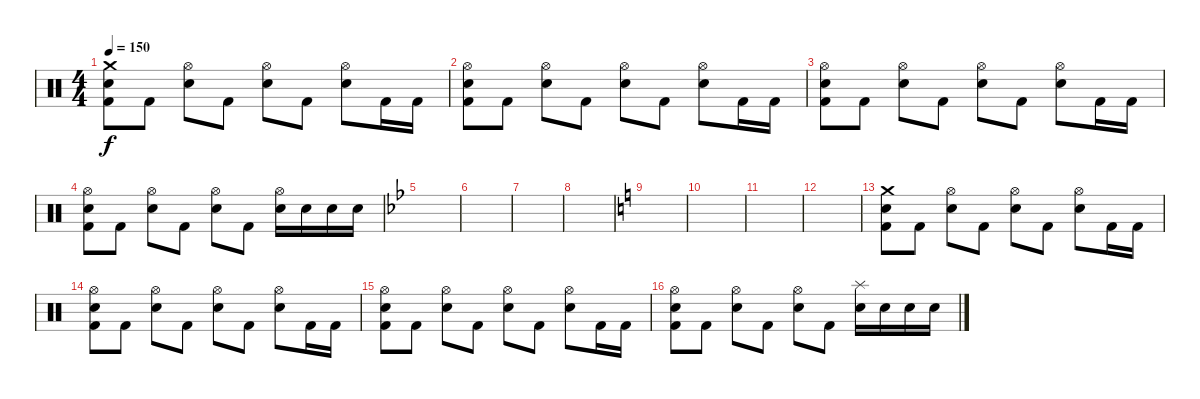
\track "" {instrument percussion}
\staff {score}
\articulation defaults
\ts (4 4)
\tempo 150
\clef neutral
\ks c
("Crash medium (hit)" "Snare (hit) 2" "Kick (hit) 2").8{dy f} "Kick (hit) 2".8 ("Hi-Hat (open)" "Snare (hit) 2").8 "Kick (hit) 2".8 ("Hi-Hat (open)" "Snare (hit) 2").8 "Kick (hit) 2".8 ("Hi-Hat (open)" "Snare (hit) 2").8 "Kick (hit) 2".16 "Kick (hit) 2".16 |
("Hi-Hat (open)" "Snare (hit) 2" "Kick (hit) 2").8 "Kick (hit) 2".8 ("Hi-Hat (open)" "Snare (hit) 2").8 "Kick (hit) 2".8 ("Hi-Hat (open)" "Snare (hit) 2").8 "Kick (hit) 2".8 ("Hi-Hat (open)" "Snare (hit) 2").8 "Kick (hit) 2".16 "Kick (hit) 2".16 |
("Hi-Hat (open)" "Snare (hit) 2" "Kick (hit) 2").8 "Kick (hit) 2".8 ("Hi-Hat (open)" "Snare (hit) 2").8 "Kick (hit) 2".8 ("Hi-Hat (open)" "Snare (hit) 2").8 "Kick (hit) 2".8 ("Hi-Hat (open)" "Snare (hit) 2").8 "Kick (hit) 2".16 "Kick (hit) 2".16 |
("Hi-Hat (open)" "Snare (hit) 2" "Kick (hit) 2").8 "Kick (hit) 2".8 ("Hi-Hat (open)" "Snare (hit) 2").8 "Kick (hit) 2".8 ("Hi-Hat (open)" "Snare (hit) 2").8 "Kick (hit) 2".8 ("Hi-Hat (open)" "Snare (hit) 2").16 "Snare (hit) 2".16 "Snare (hit) 2".16 "Snare (hit) 2".16 |
\ks bb
|
|
|
|
\ks c
|
|
|
|
("Crash medium (hit)" "Snare (hit) 2" "Kick (hit) 2").8 "Kick (hit) 2".8 ("Hi-Hat (open)" "Snare (hit) 2").8 "Kick (hit) 2".8 ("Hi-Hat (open)" "Snare (hit) 2").8 "Kick (hit) 2".8 ("Hi-Hat (open)" "Snare (hit) 2").8 "Kick (hit) 2".16 "Kick (hit) 2".16 |
("Hi-Hat (open)" "Snare (hit) 2" "Kick (hit) 2").8 "Kick (hit) 2".8 ("Hi-Hat (open)" "Snare (hit) 2").8 "Kick (hit) 2".8 ("Hi-Hat (open)" "Snare (hit) 2").8 "Kick (hit) 2".8 ("Hi-Hat (open)" "Snare (hit) 2").8 "Kick (hit) 2".16 "Kick (hit) 2".16 |
("Hi-Hat (open)" "Snare (hit) 2" "Kick (hit) 2").8 "Kick (hit) 2".8 ("Hi-Hat (open)" "Snare (hit) 2").8 "Kick (hit) 2".8 ("Hi-Hat (open)" "Snare (hit) 2").8 "Kick (hit) 2".8 ("Hi-Hat (open)" "Snare (hit) 2").8 "Kick (hit) 2".16 "Kick (hit) 2".16 |
("Hi-Hat (open)" "Snare (hit) 2" "Kick (hit) 2").8 "Kick (hit) 2".8 ("Hi-Hat (open)" "Snare (hit) 2").8 "Kick (hit) 2".8 ("Hi-Hat (open)" "Snare (hit) 2").8 "Kick (hit) 2".8 ("Splash (hit)" "Snare (hit) 2").16 "Snare (hit) 2".16 "Snare (hit) 2".16 "Snare (hit) 2".16
